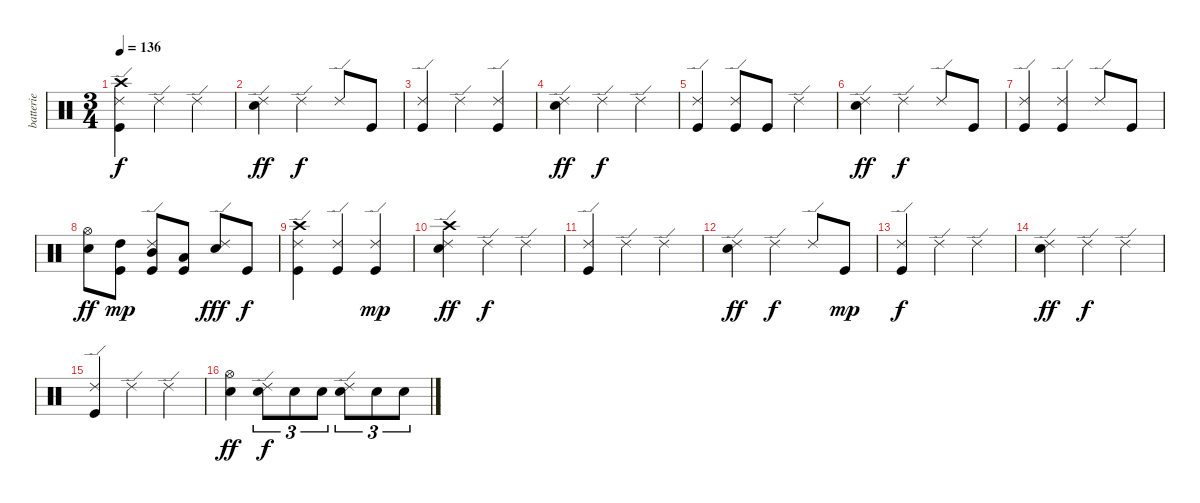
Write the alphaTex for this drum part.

\track ("batterie" "batterie") {instrument percussion}
\staff {score}
\articulation defaults
\ts (3 4)
\tempo 136
\clef neutral
\ks c
("Kick (hit)" "Ride (edge) 2" "Crash high (hit)").4{dy f} "Ride (edge) 2".4 "Ride (edge) 2".4 |
("Electric Snare (hit)" "Ride (edge) 2").4{dy ff} "Ride (edge) 2".4{dy f} "Ride (edge) 2".8 "Kick (hit)".8 |
("Kick (hit)" "Ride (edge) 2").4 "Ride (edge) 2".4 ("Kick (hit)" "Ride (edge) 2").4 |
("Electric Snare (hit)" "Ride (edge) 2").4{dy ff} "Ride (edge) 2".4{dy f} "Ride (edge) 2".4 |
("Kick (hit)" "Ride (edge) 2").4 ("Kick (hit)" "Ride (edge) 2").8 "Kick (hit)".8 "Ride (edge) 2".4 |
("Electric Snare (hit)" "Ride (edge) 2").4{dy ff} "Ride (edge) 2".4{dy f} "Ride (edge) 2".8 "Kick (hit)".8 |
("Kick (hit)" "Ride (edge) 2").4 ("Kick (hit)" "Ride (edge) 2").4 "Ride (edge) 2".8 "Kick (hit)".8 |
("Electric Snare (hit)" "Hi-Hat (open)").8{dy ff} ("Kick (hit)" "High Tom (hit)").8{dy mp} ("Kick (hit)" "Mid Tom (hit)" "Ride (edge) 2").8 ("Kick (hit)" "Low Floor Tom (hit)").8 ("Electric Snare (hit)" "Ride (edge) 2").8{dy fff} "Kick (hit)".8{dy f} |
("Kick (hit)" "Ride (edge) 2" "Crash high (hit)").4 ("Kick (hit)" "Ride (edge) 2").4 ("Kick (hit)" "Ride (edge) 2").4{dy mp} |
("Electric Snare (hit)" "Ride (edge) 2" "Crash high (hit)").4{dy ff} "Ride (edge) 2".4{dy f} "Ride (edge) 2".4 |
("Kick (hit)" "Ride (edge) 2").4 "Ride (edge) 2".4 "Ride (edge) 2".4 |
("Electric Snare (hit)" "Ride (edge) 2").4{dy ff} "Ride (edge) 2".4{dy f} "Ride (edge) 2".8 "Kick (hit)".8{dy mp} |
("Kick (hit)" "Ride (edge) 2").4{dy f} "Ride (edge) 2".4 "Ride (edge) 2".4 |
("Electric Snare (hit)" "Ride (edge) 2").4{dy ff} "Ride (edge) 2".4{dy f} "Ride (edge) 2".4 |
("Kick (hit)" "Ride (edge) 2").4 "Ride (edge) 2".4 "Ride (edge) 2".4 |
("Electric Snare (hit)" "Hi-Hat (open)").4{dy ff} ("Electric Snare (hit)" "Ride (edge) 2").8{tu (3 2) dy f} "Electric Snare (hit)".8{tu (3 2)} "Electric Snare (hit)".8{tu (3 2)} ("Electric Snare (hit)" "Ride (edge) 2").8{tu (3 2)} "Electric Snare (hit)".8{tu (3 2)} "Electric Snare (hit)".8{tu (3 2)}
